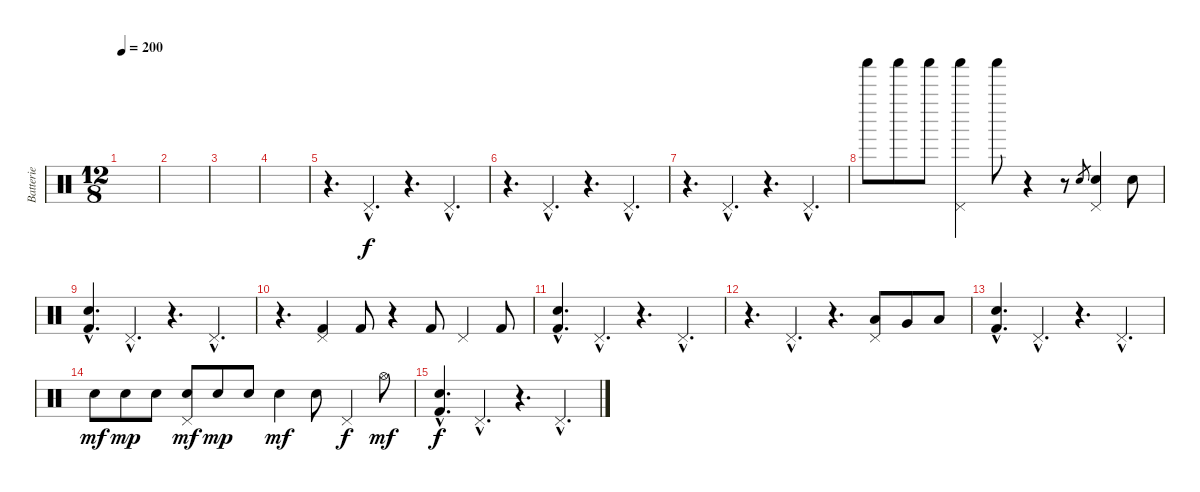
\track ("Batterie" "Batterie") {instrument percussion}
\staff {score}
\articulation defaults
\ts (12 8)
\tempo 200
\clef neutral
\ks c
|
|
|
|
r.4{d} "Pedal Hi-Hat (hit)"{hac}.4{d} r.4{d} "Pedal Hi-Hat (hit)"{hac}.4{d} |
r.4{d} "Pedal Hi-Hat (hit)"{hac}.4{d} r.4{d} "Pedal Hi-Hat (hit)"{hac}.4{d} |
r.4{d} "Pedal Hi-Hat (hit)"{hac}.4{d} r.4{d} "Pedal Hi-Hat (hit)"{hac}.4{d} |
"Shaker (hit)".8 "Shaker (hit)".8 "Shaker (hit)".8 ("Shaker (hit)" "Pedal Hi-Hat (hit)").4 "Shaker (hit)".8 r.4 r.8 "Electric Snare (hit)".8{gr} ("Electric Snare (hit)" "Pedal Hi-Hat (hit)").4 "Electric Snare (hit)".8 |
("Metronome (bell)"{hac} "Kick (hit) 2"{hac}).4{d} "Pedal Hi-Hat (hit)"{hac}.4{d} r.4{d} "Pedal Hi-Hat (hit)"{hac}.4{d} |
r.4{d} ("Pedal Hi-Hat (hit)" "Kick (hit) 2").4 "Kick (hit) 2".8 r.4 "Kick (hit) 2".8 "Pedal Hi-Hat (hit)".4 "Kick (hit) 2".8 |
("Metronome (bell)"{hac} "Kick (hit) 2"{hac}).4{d} "Pedal Hi-Hat (hit)"{hac}.4{d} r.4{d} "Pedal Hi-Hat (hit)"{hac}.4{d} |
r.4{d} "Pedal Hi-Hat (hit)"{hac}.4{d} r.4{d} ("Low Tom (hit)" "Pedal Hi-Hat (hit)").8 "Very Low Tom (hit)".8 "Low Floor Tom (hit)".8 |
("Metronome (bell)"{hac} "Kick (hit) 2"{hac}).4{d} "Pedal Hi-Hat (hit)"{hac}.4{d} r.4{d} "Pedal Hi-Hat (hit)"{hac}.4{d} |
"Electric Snare (hit)".8{dy mf} "Electric Snare (hit)".8{dy mp} "Electric Snare (hit)".8 ("Electric Snare (hit)" "Pedal Hi-Hat (hit)").8{dy mf} "Electric Snare (hit)".8{dy mp} "Electric Snare (hit)".8 "Electric Snare (hit)".4{dy mf} "Electric Snare (hit)".8 "Pedal Hi-Hat (hit)".4{dy f} "Hi-Hat (open)".8{dy mf} |
("Metronome (bell)"{hac} "Kick (hit) 2"{hac}).4{d dy f} "Pedal Hi-Hat (hit)"{hac}.4{d} r.4{d} "Pedal Hi-Hat (hit)"{hac}.4{d}
